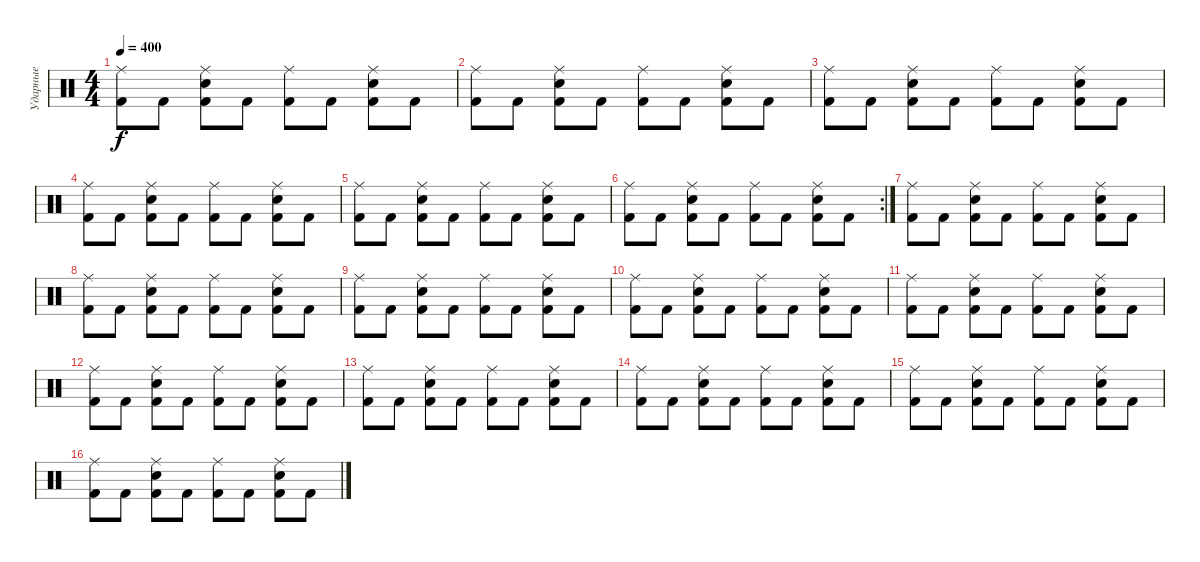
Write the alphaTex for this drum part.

\track ("Ударные" "Ударные") {instrument percussion}
\staff {score}
\articulation defaults
\ts (4 4)
\tempo 400
\clef neutral
\ks c
("Ride (middle)" "Kick (hit) 2").8{dy f} "Kick (hit) 2".8 ("Ride (middle)" "Snare (hit) 2" "Kick (hit) 2").8 "Kick (hit) 2".8 ("Ride (middle)" "Kick (hit) 2").8 "Kick (hit) 2".8 ("Ride (middle)" "Snare (hit) 2" "Kick (hit) 2").8 "Kick (hit) 2".8 |
("Ride (middle)" "Kick (hit) 2").8 "Kick (hit) 2".8 ("Ride (middle)" "Snare (hit) 2" "Kick (hit) 2").8 "Kick (hit) 2".8 ("Ride (middle)" "Kick (hit) 2").8 "Kick (hit) 2".8 ("Ride (middle)" "Snare (hit) 2" "Kick (hit) 2").8 "Kick (hit) 2".8 |
("Ride (middle)" "Kick (hit) 2").8 "Kick (hit) 2".8 ("Ride (middle)" "Snare (hit) 2" "Kick (hit) 2").8 "Kick (hit) 2".8 ("Ride (middle)" "Kick (hit) 2").8 "Kick (hit) 2".8 ("Ride (middle)" "Snare (hit) 2" "Kick (hit) 2").8 "Kick (hit) 2".8 |
("Ride (middle)" "Kick (hit) 2").8 "Kick (hit) 2".8 ("Ride (middle)" "Snare (hit) 2" "Kick (hit) 2").8 "Kick (hit) 2".8 ("Ride (middle)" "Kick (hit) 2").8 "Kick (hit) 2".8 ("Ride (middle)" "Snare (hit) 2" "Kick (hit) 2").8 "Kick (hit) 2".8 |
("Ride (middle)" "Kick (hit) 2").8 "Kick (hit) 2".8 ("Ride (middle)" "Snare (hit) 2" "Kick (hit) 2").8 "Kick (hit) 2".8 ("Ride (middle)" "Kick (hit) 2").8 "Kick (hit) 2".8 ("Ride (middle)" "Snare (hit) 2" "Kick (hit) 2").8 "Kick (hit) 2".8 |
\rc 2
("Ride (middle)" "Kick (hit) 2").8 "Kick (hit) 2".8 ("Ride (middle)" "Snare (hit) 2" "Kick (hit) 2").8 "Kick (hit) 2".8 ("Ride (middle)" "Kick (hit) 2").8 "Kick (hit) 2".8 ("Ride (middle)" "Snare (hit) 2" "Kick (hit) 2").8 "Kick (hit) 2".8 |
("Ride (middle)" "Kick (hit) 2").8 "Kick (hit) 2".8 ("Ride (middle)" "Snare (hit) 2" "Kick (hit) 2").8 "Kick (hit) 2".8 ("Ride (middle)" "Kick (hit) 2").8 "Kick (hit) 2".8 ("Ride (middle)" "Snare (hit) 2" "Kick (hit) 2").8 "Kick (hit) 2".8 |
("Ride (middle)" "Kick (hit) 2").8 "Kick (hit) 2".8 ("Ride (middle)" "Snare (hit) 2" "Kick (hit) 2").8 "Kick (hit) 2".8 ("Ride (middle)" "Kick (hit) 2").8 "Kick (hit) 2".8 ("Ride (middle)" "Snare (hit) 2" "Kick (hit) 2").8 "Kick (hit) 2".8 |
("Ride (middle)" "Kick (hit) 2").8 "Kick (hit) 2".8 ("Ride (middle)" "Snare (hit) 2" "Kick (hit) 2").8 "Kick (hit) 2".8 ("Ride (middle)" "Kick (hit) 2").8 "Kick (hit) 2".8 ("Ride (middle)" "Snare (hit) 2" "Kick (hit) 2").8 "Kick (hit) 2".8 |
("Ride (middle)" "Kick (hit) 2").8 "Kick (hit) 2".8 ("Ride (middle)" "Snare (hit) 2" "Kick (hit) 2").8 "Kick (hit) 2".8 ("Ride (middle)" "Kick (hit) 2").8 "Kick (hit) 2".8 ("Ride (middle)" "Snare (hit) 2" "Kick (hit) 2").8 "Kick (hit) 2".8 |
("Ride (middle)" "Kick (hit) 2").8 "Kick (hit) 2".8 ("Ride (middle)" "Snare (hit) 2" "Kick (hit) 2").8 "Kick (hit) 2".8 ("Ride (middle)" "Kick (hit) 2").8 "Kick (hit) 2".8 ("Ride (middle)" "Snare (hit) 2" "Kick (hit) 2").8 "Kick (hit) 2".8 |
("Ride (middle)" "Kick (hit) 2").8 "Kick (hit) 2".8 ("Ride (middle)" "Snare (hit) 2" "Kick (hit) 2").8 "Kick (hit) 2".8 ("Ride (middle)" "Kick (hit) 2").8 "Kick (hit) 2".8 ("Ride (middle)" "Snare (hit) 2" "Kick (hit) 2").8 "Kick (hit) 2".8 |
("Ride (middle)" "Kick (hit) 2").8 "Kick (hit) 2".8 ("Ride (middle)" "Snare (hit) 2" "Kick (hit) 2").8 "Kick (hit) 2".8 ("Ride (middle)" "Kick (hit) 2").8 "Kick (hit) 2".8 ("Ride (middle)" "Snare (hit) 2" "Kick (hit) 2").8 "Kick (hit) 2".8 |
("Ride (middle)" "Kick (hit) 2").8 "Kick (hit) 2".8 ("Ride (middle)" "Snare (hit) 2" "Kick (hit) 2").8 "Kick (hit) 2".8 ("Ride (middle)" "Kick (hit) 2").8 "Kick (hit) 2".8 ("Ride (middle)" "Snare (hit) 2" "Kick (hit) 2").8 "Kick (hit) 2".8 |
("Ride (middle)" "Kick (hit) 2").8 "Kick (hit) 2".8 ("Ride (middle)" "Snare (hit) 2" "Kick (hit) 2").8 "Kick (hit) 2".8 ("Ride (middle)" "Kick (hit) 2").8 "Kick (hit) 2".8 ("Ride (middle)" "Snare (hit) 2" "Kick (hit) 2").8 "Kick (hit) 2".8 |
("Ride (middle)" "Kick (hit) 2").8 "Kick (hit) 2".8 ("Ride (middle)" "Snare (hit) 2" "Kick (hit) 2").8 "Kick (hit) 2".8 ("Ride (middle)" "Kick (hit) 2").8 "Kick (hit) 2".8 ("Ride (middle)" "Snare (hit) 2" "Kick (hit) 2").8 "Kick (hit) 2".8
